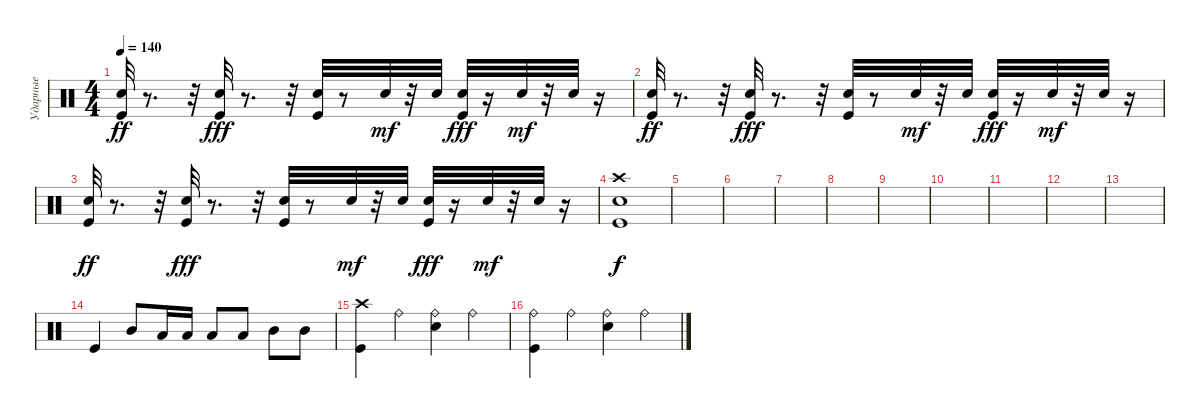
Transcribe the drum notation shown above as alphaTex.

\track ("Ударные" "Ударные") {instrument percussion}
\staff {score}
\articulation defaults
\ts (4 4)
\tempo 140
\clef neutral
\ks c
("Kick (hit)" "Electric Snare (hit)").32{dy ff} r.8{d} r.32 ("Kick (hit)" "Electric Snare (hit)").32{dy fff} r.8{d} r.32 ("Kick (hit)" "Electric Snare (hit)").32 r.8 "Electric Snare (hit)".32{dy mf} r.32 "Electric Snare (hit)".32 ("Kick (hit)" "Electric Snare (hit)").32{dy fff} r.16 "Electric Snare (hit)".32{dy mf} r.32 "Electric Snare (hit)".32 r.16 |
("Kick (hit)" "Electric Snare (hit)").32{dy ff} r.8{d} r.32 ("Kick (hit)" "Electric Snare (hit)").32{dy fff} r.8{d} r.32 ("Kick (hit)" "Electric Snare (hit)").32 r.8 "Electric Snare (hit)".32{dy mf} r.32 "Electric Snare (hit)".32 ("Kick (hit)" "Electric Snare (hit)").32{dy fff} r.16 "Electric Snare (hit)".32{dy mf} r.32 "Electric Snare (hit)".32 r.16 |
("Kick (hit)" "Electric Snare (hit)").32{dy ff} r.8{d} r.32 ("Kick (hit)" "Electric Snare (hit)").32{dy fff} r.8{d} r.32 ("Kick (hit)" "Electric Snare (hit)").32 r.8 "Electric Snare (hit)".32{dy mf} r.32 "Electric Snare (hit)".32 ("Kick (hit)" "Electric Snare (hit)").32{dy fff} r.16 "Electric Snare (hit)".32{dy mf} r.32 "Electric Snare (hit)".32 r.16 |
("Electric Snare (hit)" "Crash high (hit)" "Kick (hit)").1{dy f} |
|
|
|
|
|
|
|
|
|
"Kick (hit)".4 "Mid Tom (hit)".8 "Low Tom (hit)".16 "Low Tom (hit)".16 "Low Tom (hit)".8 "Low Tom (hit)".8 "Mid Tom (hit)".8 "Mid Tom (hit)".8 |
("Crash high (hit)" "Kick (hit)").4 "Ride (bell)".4 ("Ride (bell)" "Electric Snare (hit)").4 "Ride (bell)".4 |
("Ride (bell)" "Kick (hit)").4 "Ride (bell)".4 ("Ride (bell)" "Electric Snare (hit)").4 "Ride (bell)".4
